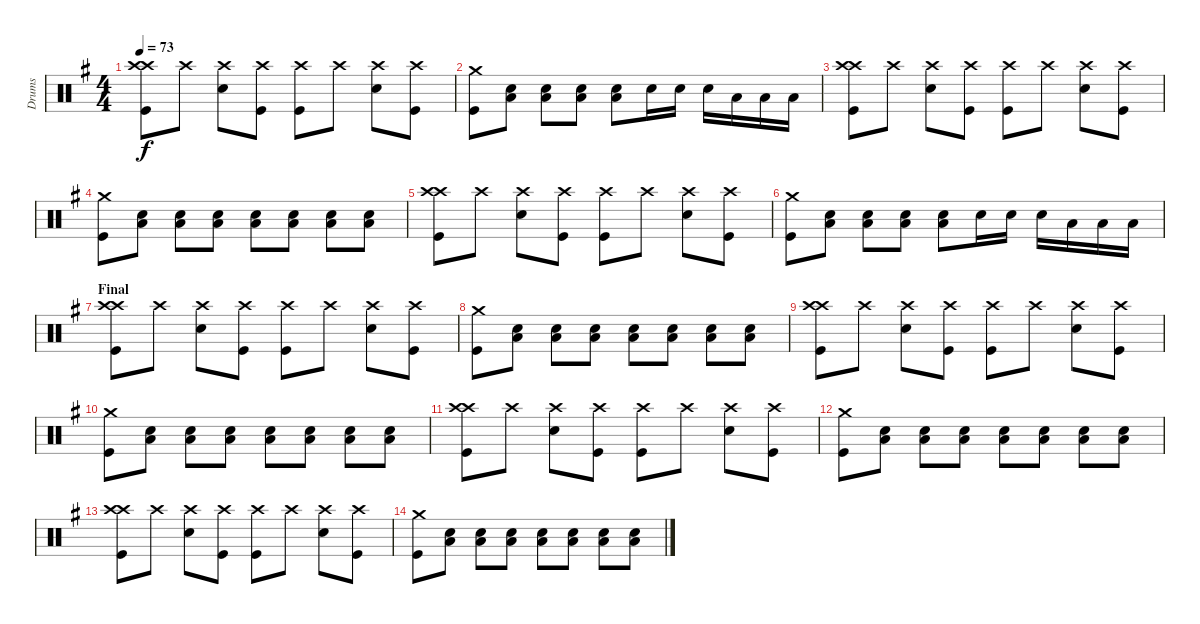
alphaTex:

\track ("Drums" "Drums") {instrument percussion}
\staff {score}
\articulation defaults
\ts (4 4)
\tempo 73
\clef neutral
\ks g
("Crash high (hit)" "Crash high (hit)" "Kick (hit)").8{dy f} "Crash high (hit)".8 ("Crash high (hit)" "Electric Snare (hit)").8 ("Crash high (hit)" "Kick (hit)").8 ("Crash high (hit)" "Kick (hit)").8 "Crash high (hit)".8 ("Crash high (hit)" "Electric Snare (hit)").8 ("Crash high (hit)" "Kick (hit)").8 |
("Crash medium (hit)" "Kick (hit)").8 ("Low Floor Tom (hit)" "Electric Snare (hit)").8 ("Low Floor Tom (hit)" "Electric Snare (hit)").8 ("Low Floor Tom (hit)" "Electric Snare (hit)").8 ("Low Floor Tom (hit)" "Electric Snare (hit)").8 "Electric Snare (hit)".16 "Electric Snare (hit)".16 "Electric Snare (hit)".16 "Low Tom (hit)".16 "Low Tom (hit)".16 "Low Tom (hit)".16 |
("Crash high (hit)" "Crash high (hit)" "Kick (hit)").8 "Crash high (hit)".8 ("Crash high (hit)" "Electric Snare (hit)").8 ("Crash high (hit)" "Kick (hit)").8 ("Crash high (hit)" "Kick (hit)").8 "Crash high (hit)".8 ("Crash high (hit)" "Electric Snare (hit)").8 ("Crash high (hit)" "Kick (hit)").8 |
("Crash medium (hit)" "Kick (hit)").8 ("Low Floor Tom (hit)" "Electric Snare (hit)").8 ("Low Floor Tom (hit)" "Electric Snare (hit)").8 ("Low Floor Tom (hit)" "Electric Snare (hit)").8 ("Low Floor Tom (hit)" "Electric Snare (hit)").8 ("Low Floor Tom (hit)" "Electric Snare (hit)").8 ("Low Floor Tom (hit)" "Electric Snare (hit)").8 ("Low Floor Tom (hit)" "Electric Snare (hit)").8 |
("Crash high (hit)" "Crash high (hit)" "Kick (hit)").8 "Crash high (hit)".8 ("Crash high (hit)" "Electric Snare (hit)").8 ("Crash high (hit)" "Kick (hit)").8 ("Crash high (hit)" "Kick (hit)").8 "Crash high (hit)".8 ("Crash high (hit)" "Electric Snare (hit)").8 ("Crash high (hit)" "Kick (hit)").8 |
("Crash medium (hit)" "Kick (hit)").8 ("Low Floor Tom (hit)" "Electric Snare (hit)").8 ("Low Floor Tom (hit)" "Electric Snare (hit)").8 ("Low Floor Tom (hit)" "Electric Snare (hit)").8 ("Low Floor Tom (hit)" "Electric Snare (hit)").8 "Electric Snare (hit)".16 "Electric Snare (hit)".16 "Electric Snare (hit)".16 "Low Tom (hit)".16 "Low Tom (hit)".16 "Low Tom (hit)".16 |
\section ("" "Final")
("Crash high (hit)" "Crash high (hit)" "Kick (hit)").8 "Crash high (hit)".8 ("Crash high (hit)" "Electric Snare (hit)").8 ("Crash high (hit)" "Kick (hit)").8 ("Crash high (hit)" "Kick (hit)").8 "Crash high (hit)".8 ("Crash high (hit)" "Electric Snare (hit)").8 ("Crash high (hit)" "Kick (hit)").8 |
("Crash medium (hit)" "Kick (hit)").8 ("Low Floor Tom (hit)" "Electric Snare (hit)").8 ("Low Floor Tom (hit)" "Electric Snare (hit)").8 ("Low Floor Tom (hit)" "Electric Snare (hit)").8 ("Low Floor Tom (hit)" "Electric Snare (hit)").8 ("Low Floor Tom (hit)" "Electric Snare (hit)").8 ("Low Floor Tom (hit)" "Electric Snare (hit)").8 ("Low Floor Tom (hit)" "Electric Snare (hit)").8 |
("Crash high (hit)" "Crash high (hit)" "Kick (hit)").8 "Crash high (hit)".8 ("Crash high (hit)" "Electric Snare (hit)").8 ("Crash high (hit)" "Kick (hit)").8 ("Crash high (hit)" "Kick (hit)").8 "Crash high (hit)".8 ("Crash high (hit)" "Electric Snare (hit)").8 ("Crash high (hit)" "Kick (hit)").8 |
("Crash medium (hit)" "Kick (hit)").8 ("Low Floor Tom (hit)" "Electric Snare (hit)").8 ("Low Floor Tom (hit)" "Electric Snare (hit)").8 ("Low Floor Tom (hit)" "Electric Snare (hit)").8 ("Low Floor Tom (hit)" "Electric Snare (hit)").8 ("Low Floor Tom (hit)" "Electric Snare (hit)").8 ("Low Floor Tom (hit)" "Electric Snare (hit)").8 ("Low Floor Tom (hit)" "Electric Snare (hit)").8 |
("Crash high (hit)" "Crash high (hit)" "Kick (hit)").8 "Crash high (hit)".8 ("Crash high (hit)" "Electric Snare (hit)").8 ("Crash high (hit)" "Kick (hit)").8 ("Crash high (hit)" "Kick (hit)").8 "Crash high (hit)".8 ("Crash high (hit)" "Electric Snare (hit)").8 ("Crash high (hit)" "Kick (hit)").8 |
("Crash medium (hit)" "Kick (hit)").8 ("Low Floor Tom (hit)" "Electric Snare (hit)").8 ("Low Floor Tom (hit)" "Electric Snare (hit)").8 ("Low Floor Tom (hit)" "Electric Snare (hit)").8 ("Low Floor Tom (hit)" "Electric Snare (hit)").8 ("Low Floor Tom (hit)" "Electric Snare (hit)").8 ("Low Floor Tom (hit)" "Electric Snare (hit)").8 ("Low Floor Tom (hit)" "Electric Snare (hit)").8 |
("Crash high (hit)" "Crash high (hit)" "Kick (hit)").8 "Crash high (hit)".8 ("Crash high (hit)" "Electric Snare (hit)").8 ("Crash high (hit)" "Kick (hit)").8 ("Crash high (hit)" "Kick (hit)").8 "Crash high (hit)".8 ("Crash high (hit)" "Electric Snare (hit)").8 ("Crash high (hit)" "Kick (hit)").8 |
("Crash medium (hit)" "Kick (hit)").8 ("Low Floor Tom (hit)" "Electric Snare (hit)").8 ("Low Floor Tom (hit)" "Electric Snare (hit)").8 ("Low Floor Tom (hit)" "Electric Snare (hit)").8 ("Low Floor Tom (hit)" "Electric Snare (hit)").8 ("Low Floor Tom (hit)" "Electric Snare (hit)").8 ("Low Floor Tom (hit)" "Electric Snare (hit)").8 ("Low Floor Tom (hit)" "Electric Snare (hit)").8
